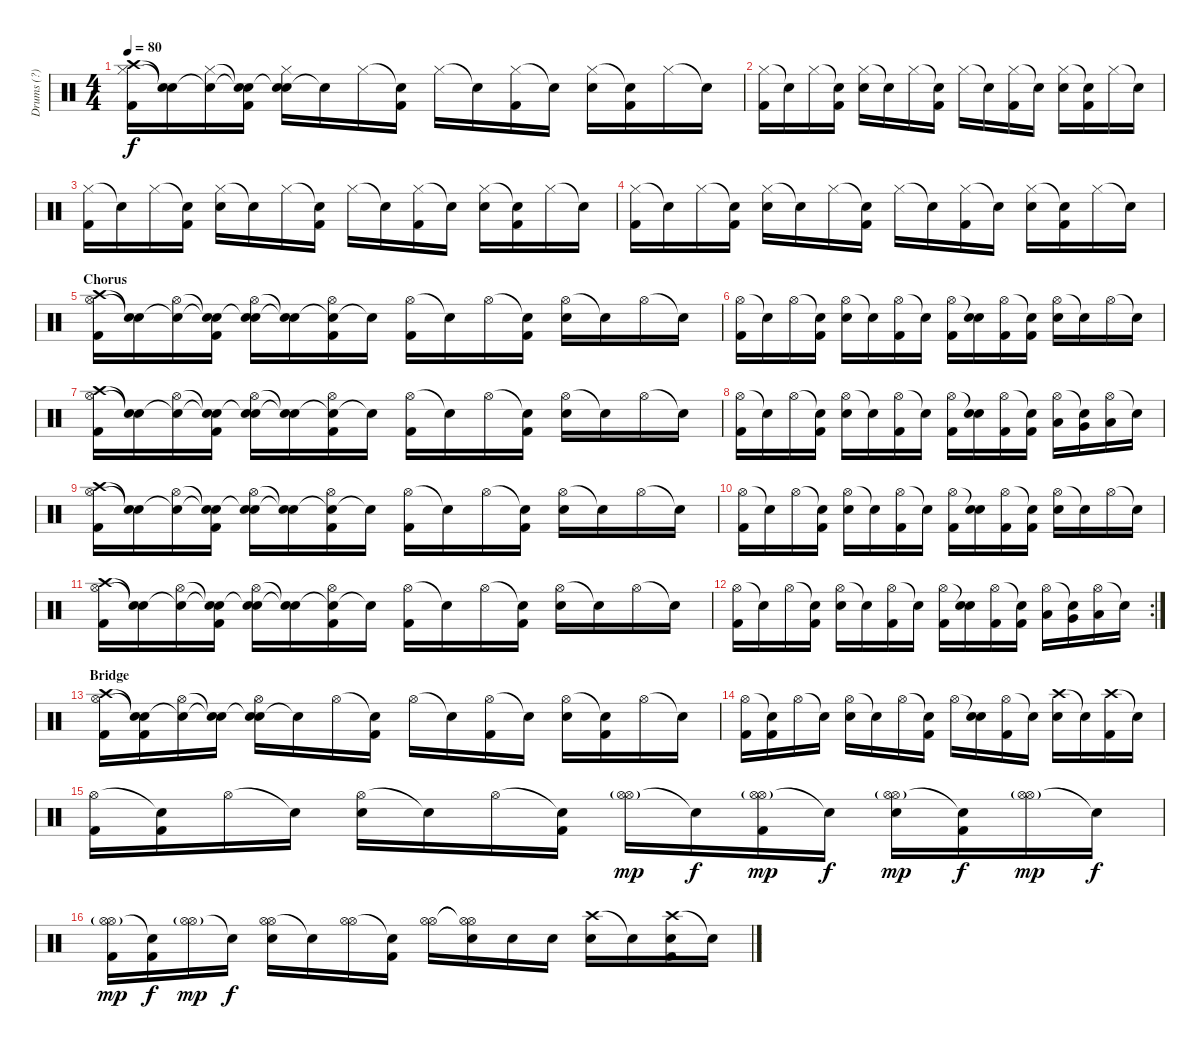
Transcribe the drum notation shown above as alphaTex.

\track ("Drums (?)" "Drums (?)") {instrument percussion}
\staff {score}
\articulation defaults
\ts (4 4)
\tempo 80
\clef neutral
\ks c
("Crash high (hit)" "Hi-Hat (closed)" "Kick (hit) 2").16{dy f} ("Snare (hit)"{t} "Snare (hit)"{t}).16 ("Snare (hit)"{t} "Hi-Hat (closed)").16 ("Snare (hit)"{t} "Snare (hit)"{t} "Kick (hit) 2").16 ("Snare (hit)"{t} "Hi-Hat (closed)" "Electric Snare (hit)").16 "Snare (hit)"{t}.16 "Hi-Hat (closed)".16 ("Snare (hit)"{t} "Kick (hit) 2").16 "Hi-Hat (closed)".16 "Snare (hit)"{t}.16 ("Hi-Hat (closed)" "Kick (hit) 2").16 "Snare (hit)"{t}.16 ("Hi-Hat (closed)" "Electric Snare (hit)").16 ("Snare (hit)"{t} "Kick (hit) 2").16 "Hi-Hat (closed)".16 "Snare (hit)"{t}.16 |
("Hi-Hat (closed)" "Kick (hit) 2").16 "Snare (hit)"{t}.16 "Hi-Hat (closed)".16 ("Snare (hit)"{t} "Kick (hit) 2").16 ("Hi-Hat (closed)" "Electric Snare (hit)").16 "Snare (hit)"{t}.16 "Hi-Hat (closed)".16 ("Snare (hit)"{t} "Kick (hit) 2").16 "Hi-Hat (closed)".16 "Snare (hit)"{t}.16 ("Hi-Hat (closed)" "Kick (hit) 2").16 "Snare (hit)"{t}.16 ("Hi-Hat (closed)" "Electric Snare (hit)").16 ("Snare (hit)"{t} "Kick (hit) 2").16 "Hi-Hat (closed)".16 "Snare (hit)"{t}.16 |
("Hi-Hat (closed)" "Kick (hit) 2").16 "Snare (hit)"{t}.16 "Hi-Hat (closed)".16 ("Snare (hit)"{t} "Kick (hit) 2").16 ("Hi-Hat (closed)" "Electric Snare (hit)").16 "Snare (hit)"{t}.16 "Hi-Hat (closed)".16 ("Snare (hit)"{t} "Kick (hit) 2").16 "Hi-Hat (closed)".16 "Snare (hit)"{t}.16 ("Hi-Hat (closed)" "Kick (hit) 2").16 "Snare (hit)"{t}.16 ("Hi-Hat (closed)" "Electric Snare (hit)").16 ("Snare (hit)"{t} "Kick (hit) 2").16 "Hi-Hat (closed)".16 "Snare (hit)"{t}.16 |
("Hi-Hat (closed)" "Kick (hit) 2").16 "Snare (hit)"{t}.16 "Hi-Hat (closed)".16 ("Snare (hit)"{t} "Kick (hit) 2").16 ("Hi-Hat (closed)" "Electric Snare (hit)").16 "Snare (hit)"{t}.16 "Hi-Hat (closed)".16 ("Snare (hit)"{t} "Kick (hit) 2").16 "Hi-Hat (closed)".16 "Snare (hit)"{t}.16 ("Hi-Hat (closed)" "Kick (hit) 2").16 "Snare (hit)"{t}.16 ("Hi-Hat (closed)" "Electric Snare (hit)").16 ("Snare (hit)"{t} "Kick (hit) 2").16 "Hi-Hat (closed)".16 "Snare (hit)"{t}.16 |
\section ("" "Chorus")
("Crash high (hit)" "Hi-Hat (open)" "Kick (hit) 2").16 ("Snare (hit)"{t} "Snare (hit)"{t}).16 ("Snare (hit)"{t} "Hi-Hat (open)").16 ("Snare (hit)"{t} "Snare (hit)"{t} "Kick (hit) 2").16 ("Snare (hit)"{t} "Hi-Hat (open)" "Electric Snare (hit)").16 ("Snare (hit)"{t} "Snare (hit)"{t}).16 ("Snare (hit)"{t} "Hi-Hat (open)" "Kick (hit) 2").16 "Snare (hit)"{t}.16 ("Hi-Hat (open)" "Kick (hit) 2").16 "Snare (hit)"{t}.16 "Hi-Hat (open)".16 ("Snare (hit)"{t} "Kick (hit) 2").16 ("Hi-Hat (open)" "Electric Snare (hit)").16 "Snare (hit)"{t}.16 "Hi-Hat (open)".16 "Snare (hit)"{t}.16 |
("Hi-Hat (open)" "Kick (hit) 2").16 "Snare (hit)"{t}.16 "Hi-Hat (open)".16 ("Snare (hit)"{t} "Kick (hit) 2").16 ("Hi-Hat (open)" "Electric Snare (hit)").16 "Snare (hit)"{t}.16 ("Hi-Hat (open)" "Kick (hit) 2").16 "Snare (hit)"{t}.16 ("Hi-Hat (open)" "Kick (hit) 2").16 ("Snare (hit)"{t} "Electric Snare (hit)").16 ("Hi-Hat (open)" "Kick (hit) 2").16 ("Snare (hit)"{t} "Kick (hit) 2").16 ("Hi-Hat (open)" "Electric Snare (hit)").16 "Snare (hit)"{t}.16 "Hi-Hat (open)".16 "Snare (hit)"{t}.16 |
("Crash high (hit)" "Hi-Hat (open)" "Kick (hit) 2").16 ("Snare (hit)"{t} "Snare (hit)"{t}).16 ("Snare (hit)"{t} "Hi-Hat (open)").16 ("Snare (hit)"{t} "Snare (hit)"{t} "Kick (hit) 2").16 ("Snare (hit)"{t} "Hi-Hat (open)" "Electric Snare (hit)").16 ("Snare (hit)"{t} "Snare (hit)"{t}).16 ("Snare (hit)"{t} "Hi-Hat (open)" "Kick (hit) 2").16 "Snare (hit)"{t}.16 ("Hi-Hat (open)" "Kick (hit) 2").16 "Snare (hit)"{t}.16 "Hi-Hat (open)".16 ("Snare (hit)"{t} "Kick (hit) 2").16 ("Hi-Hat (open)" "Electric Snare (hit)").16 "Snare (hit)"{t}.16 "Hi-Hat (open)".16 "Snare (hit)"{t}.16 |
("Hi-Hat (open)" "Kick (hit) 2").16 "Snare (hit)"{t}.16 "Hi-Hat (open)".16 ("Snare (hit)"{t} "Kick (hit) 2").16 ("Hi-Hat (open)" "Electric Snare (hit)").16 "Snare (hit)"{t}.16 ("Hi-Hat (open)" "Kick (hit) 2").16 "Snare (hit)"{t}.16 ("Hi-Hat (open)" "Kick (hit) 2").16 ("Snare (hit)"{t} "Electric Snare (hit)").16 ("Hi-Hat (open)" "Kick (hit) 2").16 ("Snare (hit)"{t} "Kick (hit) 2").16 ("Hi-Hat (open)" "Low Tom (hit)").16 ("Snare (hit)"{t} "Very Low Tom (hit)").16 ("Hi-Hat (open)" "Low Floor Tom (hit)").16 "Snare (hit)"{t}.16 |
("Crash high (hit)" "Hi-Hat (open)" "Kick (hit) 2").16 ("Snare (hit)"{t} "Snare (hit)"{t}).16 ("Snare (hit)"{t} "Hi-Hat (open)").16 ("Snare (hit)"{t} "Snare (hit)"{t} "Kick (hit) 2").16 ("Snare (hit)"{t} "Hi-Hat (open)" "Electric Snare (hit)").16 ("Snare (hit)"{t} "Snare (hit)"{t}).16 ("Snare (hit)"{t} "Hi-Hat (open)" "Kick (hit) 2").16 "Snare (hit)"{t}.16 ("Hi-Hat (open)" "Kick (hit) 2").16 "Snare (hit)"{t}.16 "Hi-Hat (open)".16 ("Snare (hit)"{t} "Kick (hit) 2").16 ("Hi-Hat (open)" "Electric Snare (hit)").16 "Snare (hit)"{t}.16 "Hi-Hat (open)".16 "Snare (hit)"{t}.16 |
("Hi-Hat (open)" "Kick (hit) 2").16 "Snare (hit)"{t}.16 "Hi-Hat (open)".16 ("Snare (hit)"{t} "Kick (hit) 2").16 ("Hi-Hat (open)" "Electric Snare (hit)").16 "Snare (hit)"{t}.16 ("Hi-Hat (open)" "Kick (hit) 2").16 "Snare (hit)"{t}.16 ("Hi-Hat (open)" "Kick (hit) 2").16 ("Snare (hit)"{t} "Electric Snare (hit)").16 ("Hi-Hat (open)" "Kick (hit) 2").16 ("Snare (hit)"{t} "Kick (hit) 2").16 ("Hi-Hat (open)" "Electric Snare (hit)").16 "Snare (hit)"{t}.16 "Hi-Hat (open)".16 "Snare (hit)"{t}.16 |
("Crash high (hit)" "Hi-Hat (open)" "Kick (hit) 2").16 ("Snare (hit)"{t} "Snare (hit)"{t}).16 ("Snare (hit)"{t} "Hi-Hat (open)").16 ("Snare (hit)"{t} "Snare (hit)"{t} "Kick (hit) 2").16 ("Snare (hit)"{t} "Hi-Hat (open)" "Electric Snare (hit)").16 ("Snare (hit)"{t} "Snare (hit)"{t}).16 ("Snare (hit)"{t} "Hi-Hat (open)" "Kick (hit) 2").16 "Snare (hit)"{t}.16 ("Hi-Hat (open)" "Kick (hit) 2").16 "Snare (hit)"{t}.16 "Hi-Hat (open)".16 ("Snare (hit)"{t} "Kick (hit) 2").16 ("Hi-Hat (open)" "Electric Snare (hit)").16 "Snare (hit)"{t}.16 "Hi-Hat (open)".16 "Snare (hit)"{t}.16 |
\rc 2
("Hi-Hat (open)" "Kick (hit) 2").16 "Snare (hit)"{t}.16 "Hi-Hat (open)".16 ("Snare (hit)"{t} "Kick (hit) 2").16 ("Hi-Hat (open)" "Electric Snare (hit)").16 "Snare (hit)"{t}.16 ("Hi-Hat (open)" "Kick (hit) 2").16 "Snare (hit)"{t}.16 ("Hi-Hat (open)" "Kick (hit) 2").16 ("Snare (hit)"{t} "Electric Snare (hit)").16 ("Hi-Hat (open)" "Kick (hit) 2").16 ("Snare (hit)"{t} "Kick (hit) 2").16 ("Hi-Hat (open)" "Low Tom (hit)").16 ("Snare (hit)"{t} "Very Low Tom (hit)").16 ("Hi-Hat (open)" "Low Floor Tom (hit)").16 "Snare (hit)"{t}.16 |
\section ("" "Bridge")
("Crash high (hit)" "Hi-Hat (open)" "Kick (hit) 2").16 ("Snare (hit)"{t} "Snare (hit)"{t} "Kick (hit) 2").16 ("Snare (hit)"{t} "Hi-Hat (open)").16 ("Snare (hit)"{t} "Snare (hit)"{t}).16 ("Snare (hit)"{t} "Hi-Hat (open)" "Electric Snare (hit)").16 "Snare (hit)"{t}.16 "Hi-Hat (open)".16 ("Snare (hit)"{t} "Kick (hit) 2").16 "Hi-Hat (open)".16 "Snare (hit)"{t}.16 ("Hi-Hat (open)" "Kick (hit) 2").16 "Snare (hit)"{t}.16 ("Hi-Hat (open)" "Electric Snare (hit)").16 ("Snare (hit)"{t} "Kick (hit) 2").16 "Hi-Hat (open)".16 "Snare (hit)"{t}.16 |
("Hi-Hat (open)" "Kick (hit) 2").16 ("Snare (hit)"{t} "Kick (hit) 2").16 "Hi-Hat (open)".16 "Snare (hit)"{t}.16 ("Hi-Hat (open)" "Electric Snare (hit)").16 "Snare (hit)"{t}.16 "Hi-Hat (open)".16 ("Snare (hit)"{t} "Kick (hit) 2").16 "Hi-Hat (open)".16 ("Snare (hit)"{t} "Electric Snare (hit)").16 ("Hi-Hat (open)" "Kick (hit) 2").16 "Snare (hit)"{t}.16 ("Crash high (hit)" "Electric Snare (hit)").16 "Snare (hit)"{t}.16 ("Crash high (hit)" "Kick (hit) 2").16 "Snare (hit)"{t}.16 |
("Hi-Hat (open)" "Kick (hit) 2").16 ("Snare (hit)"{t} "Kick (hit) 2").16 "Hi-Hat (open)".16 "Snare (hit)"{t}.16 ("Hi-Hat (open)" "Electric Snare (hit)").16 "Snare (hit)"{t}.16 "Hi-Hat (open)".16 ("Snare (hit)"{t} "Kick (hit) 2").16 ("Hi-Hat (open)"{g} "Hi-Hat (open)").16{dy mp} "Snare (hit)"{t}.16{dy f} ("Hi-Hat (open)"{g} "Hi-Hat (open)" "Kick (hit) 2").16{dy mp} "Snare (hit)"{t}.16{dy f} ("Hi-Hat (open)"{g} "Hi-Hat (open)" "Electric Snare (hit)").16{dy mp} ("Snare (hit)"{t} "Kick (hit) 2").16{dy f} ("Hi-Hat (open)"{g} "Hi-Hat (open)").16{dy mp} "Snare (hit)"{t}.16{dy f} |
("Hi-Hat (open)"{g} "Hi-Hat (open)" "Kick (hit) 2").16{dy mp} ("Snare (hit)"{t} "Kick (hit) 2").16{dy f} ("Hi-Hat (open)"{g} "Hi-Hat (open)").16{dy mp} "Snare (hit)"{t}.16{dy f} ("Hi-Hat (open)" "Hi-Hat (open)" "Electric Snare (hit)").16 "Snare (hit)"{t}.16 ("Hi-Hat (open)" "Hi-Hat (open)").16 ("Snare (hit)"{t} "Kick (hit) 2").16 ("Hi-Hat (open)" "Hi-Hat (open)").16 ("Hi-Hat (open)"{t} "Hi-Hat (open)"{t} "Electric Snare (hit)").16 "Electric Snare (hit)".16 "Electric Snare (hit)".16 ("Crash high (hit)" "Electric Snare (hit)").16 "Snare (hit)"{t}.16 ("Crash high (hit)" "Electric Snare (hit)" "Kick (hit) 2").16 "Snare (hit)"{t}.16
